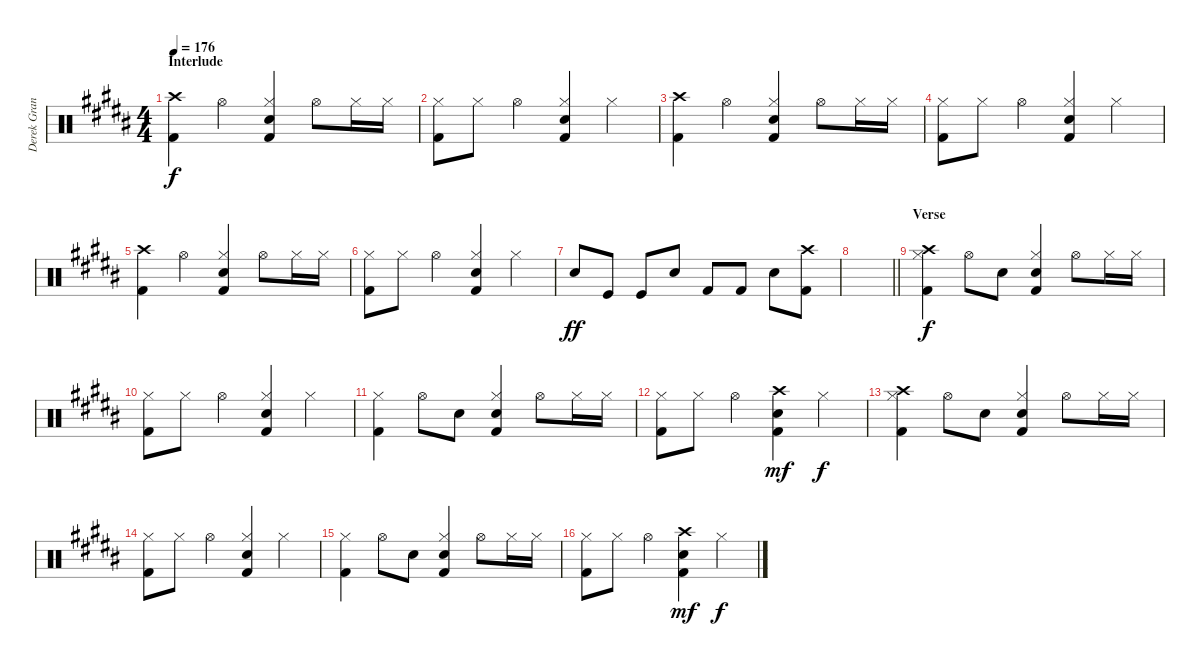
\track ("Derek Grant - Drums" "Derek Gran") {instrument percussion}
\staff {score}
\articulation defaults
\ts (4 4)
\section ("" "Interlude")
\tempo 176
\clef neutral
\ks b
("Crash high (hit)" "Kick (hit) 2").4{dy f} "Hi-Hat (open)".4 ("Hi-Hat (closed)" "Snare (hit) 2" "Kick (hit) 2").4 "Hi-Hat (open)".8 "Hi-Hat (closed)".16 "Hi-Hat (closed)".16 |
("Hi-Hat (closed)" "Kick (hit) 2").8 "Hi-Hat (closed)".8 "Hi-Hat (open)".4 ("Hi-Hat (closed)" "Snare (hit) 2" "Kick (hit) 2").4 "Hi-Hat (closed)".4 |
("Crash high (hit)" "Kick (hit) 2").4 "Hi-Hat (open)".4 ("Hi-Hat (closed)" "Snare (hit) 2" "Kick (hit) 2").4 "Hi-Hat (open)".8 "Hi-Hat (closed)".16 "Hi-Hat (closed)".16 |
("Hi-Hat (closed)" "Kick (hit) 2").8 "Hi-Hat (closed)".8 "Hi-Hat (open)".4 ("Hi-Hat (closed)" "Snare (hit) 2" "Kick (hit) 2").4 "Hi-Hat (closed)".4 |
("Crash high (hit)" "Kick (hit) 2").4 "Hi-Hat (open)".4 ("Hi-Hat (closed)" "Snare (hit) 2" "Kick (hit) 2").4 "Hi-Hat (open)".8 "Hi-Hat (closed)".16 "Hi-Hat (closed)".16 |
("Hi-Hat (closed)" "Kick (hit) 2").8 "Hi-Hat (closed)".8 "Hi-Hat (open)".4 ("Hi-Hat (closed)" "Snare (hit) 2" "Kick (hit) 2").4 "Hi-Hat (closed)".4 |
"Snare (hit) 2".8{dy ff} "Kick (hit)".8 "Kick (hit)".8 "Snare (hit) 2".8 "Kick (hit) 2".8 "Kick (hit) 2".8 "Snare (hit) 2".8 ("Kick (hit) 2" "Crash high (hit)").8 |
\barLineRight lightlight
|
\section ("" "Verse")
("Hi-Hat (closed)" "Kick (hit) 2" "Crash high (hit)").4{dy f} "Hi-Hat (open)".8 "Snare (hit) 2".8 ("Hi-Hat (closed)" "Snare (hit) 2" "Kick (hit) 2").4 "Hi-Hat (open)".8 "Hi-Hat (closed)".16 "Hi-Hat (closed)".16 |
("Hi-Hat (closed)" "Kick (hit) 2").8 "Hi-Hat (closed)".8 "Hi-Hat (open)".4 ("Hi-Hat (closed)" "Snare (hit) 2" "Kick (hit) 2").4 "Hi-Hat (closed)".4 |
("Hi-Hat (closed)" "Kick (hit) 2").4 "Hi-Hat (open)".8 "Snare (hit) 2".8 ("Hi-Hat (closed)" "Snare (hit) 2" "Kick (hit) 2").4 "Hi-Hat (open)".8 "Hi-Hat (closed)".16 "Hi-Hat (closed)".16 |
("Hi-Hat (closed)" "Kick (hit) 2").8 "Hi-Hat (closed)".8 "Hi-Hat (open)".4 ("Crash high (hit)" "Snare (hit) 2" "Kick (hit) 2").4{dy mf} "Hi-Hat (closed)".4{dy f} |
("Hi-Hat (closed)" "Kick (hit) 2" "Crash high (hit)").4 "Hi-Hat (open)".8 "Snare (hit) 2".8 ("Hi-Hat (closed)" "Snare (hit) 2" "Kick (hit) 2").4 "Hi-Hat (open)".8 "Hi-Hat (closed)".16 "Hi-Hat (closed)".16 |
("Hi-Hat (closed)" "Kick (hit) 2").8 "Hi-Hat (closed)".8 "Hi-Hat (open)".4 ("Hi-Hat (closed)" "Snare (hit) 2" "Kick (hit) 2").4 "Hi-Hat (closed)".4 |
("Hi-Hat (closed)" "Kick (hit) 2").4 "Hi-Hat (open)".8 "Snare (hit) 2".8 ("Hi-Hat (closed)" "Snare (hit) 2" "Kick (hit) 2").4 "Hi-Hat (open)".8 "Hi-Hat (closed)".16 "Hi-Hat (closed)".16 |
("Hi-Hat (closed)" "Kick (hit) 2").8 "Hi-Hat (closed)".8 "Hi-Hat (open)".4 ("Crash high (hit)" "Snare (hit) 2" "Kick (hit) 2").4{dy mf} "Hi-Hat (closed)".4{dy f}
